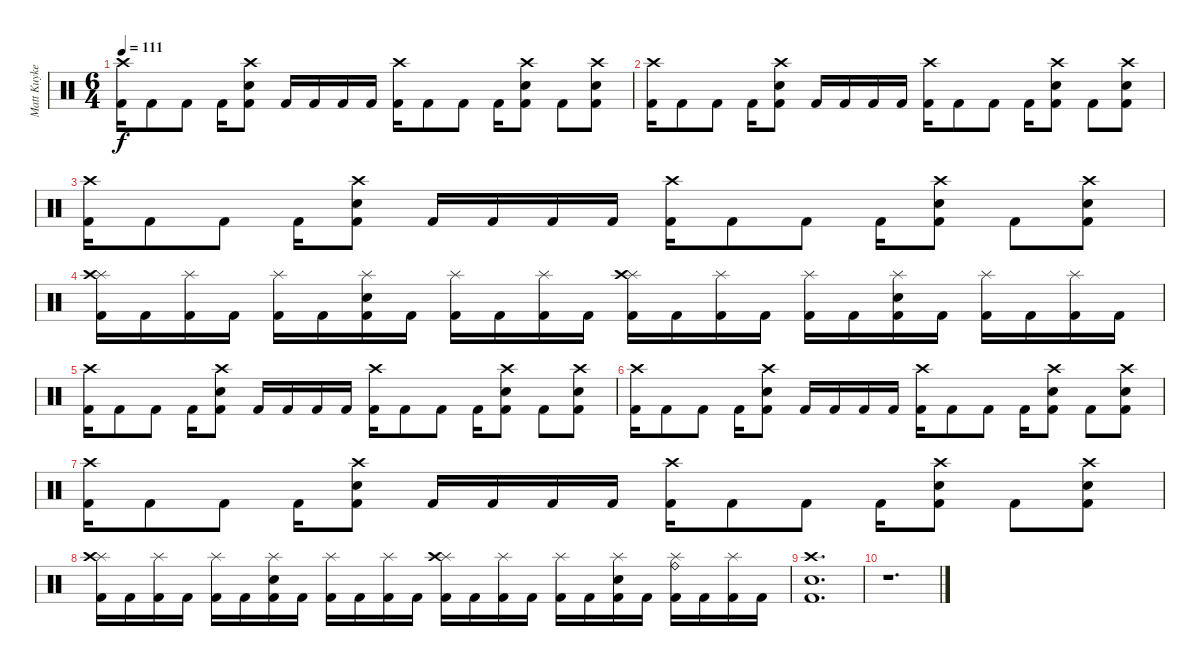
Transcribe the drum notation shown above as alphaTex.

\track ("Matt Kuykendall (Drums)" "Matt Kuyke") {instrument percussion}
\staff {score}
\articulation defaults
\ts (6 4)
\tempo 111
\clef neutral
\ks c
("Crash high (hit)" "Kick (hit) 2").16{dy f} "Kick (hit) 2".8 "Kick (hit) 2".8 "Kick (hit) 2".16 ("Crash high (hit)" "Snare (hit) 2" "Kick (hit) 2").8 "Kick (hit) 2".16 "Kick (hit) 2".16 "Kick (hit) 2".16 "Kick (hit) 2".16 ("Crash high (hit)" "Kick (hit) 2").16 "Kick (hit) 2".8 "Kick (hit) 2".8 "Kick (hit) 2".16 ("Crash high (hit)" "Snare (hit) 2" "Kick (hit) 2").8 "Kick (hit) 2".8 ("Crash high (hit)" "Snare (hit) 2" "Kick (hit) 2").8 |
("Crash high (hit)" "Kick (hit) 2").16 "Kick (hit) 2".8 "Kick (hit) 2".8 "Kick (hit) 2".16 ("Crash high (hit)" "Snare (hit) 2" "Kick (hit) 2").8 "Kick (hit) 2".16 "Kick (hit) 2".16 "Kick (hit) 2".16 "Kick (hit) 2".16 ("Crash high (hit)" "Kick (hit) 2").16 "Kick (hit) 2".8 "Kick (hit) 2".8 "Kick (hit) 2".16 ("Crash high (hit)" "Snare (hit) 2" "Kick (hit) 2").8 "Kick (hit) 2".8 ("Crash high (hit)" "Snare (hit) 2" "Kick (hit) 2").8 |
("Crash high (hit)" "Kick (hit) 2").16 "Kick (hit) 2".8 "Kick (hit) 2".8 "Kick (hit) 2".16 ("Crash high (hit)" "Snare (hit) 2" "Kick (hit) 2").8 "Kick (hit) 2".16 "Kick (hit) 2".16 "Kick (hit) 2".16 "Kick (hit) 2".16 ("Crash high (hit)" "Kick (hit) 2").16 "Kick (hit) 2".8 "Kick (hit) 2".8 "Kick (hit) 2".16 ("Crash high (hit)" "Snare (hit) 2" "Kick (hit) 2").8 "Kick (hit) 2".8 ("Crash high (hit)" "Snare (hit) 2" "Kick (hit) 2").8 |
("Splash (hit)" "Crash high (hit)" "Kick (hit) 2").16 "Kick (hit) 2".16 ("Splash (hit)" "Kick (hit) 2").16 "Kick (hit) 2".16 ("Splash (hit)" "Kick (hit) 2").16 "Kick (hit) 2".16 ("Splash (hit)" "Snare (hit) 2" "Kick (hit) 2").16 "Kick (hit) 2".16 ("Splash (hit)" "Kick (hit) 2").16 "Kick (hit) 2".16 ("Splash (hit)" "Kick (hit) 2").16 "Kick (hit) 2".16 ("Splash (hit)" "Crash high (hit)" "Kick (hit) 2").16 "Kick (hit) 2".16 ("Splash (hit)" "Kick (hit) 2").16 "Kick (hit) 2".16 ("Splash (hit)" "Kick (hit) 2").16 "Kick (hit) 2".16 ("Splash (hit)" "Snare (hit) 2" "Kick (hit) 2").16 "Kick (hit) 2".16 ("Splash (hit)" "Kick (hit) 2").16 "Kick (hit) 2".16 ("Splash (hit)" "Kick (hit) 2").16 "Kick (hit) 2".16 |
("Crash high (hit)" "Kick (hit) 2").16 "Kick (hit) 2".8 "Kick (hit) 2".8 "Kick (hit) 2".16 ("Crash high (hit)" "Snare (hit) 2" "Kick (hit) 2").8 "Kick (hit) 2".16 "Kick (hit) 2".16 "Kick (hit) 2".16 "Kick (hit) 2".16 ("Crash high (hit)" "Kick (hit) 2").16 "Kick (hit) 2".8 "Kick (hit) 2".8 "Kick (hit) 2".16 ("Crash high (hit)" "Snare (hit) 2" "Kick (hit) 2").8 "Kick (hit) 2".8 ("Crash high (hit)" "Snare (hit) 2" "Kick (hit) 2").8 |
("Crash high (hit)" "Kick (hit) 2").16 "Kick (hit) 2".8 "Kick (hit) 2".8 "Kick (hit) 2".16 ("Crash high (hit)" "Snare (hit) 2" "Kick (hit) 2").8 "Kick (hit) 2".16 "Kick (hit) 2".16 "Kick (hit) 2".16 "Kick (hit) 2".16 ("Crash high (hit)" "Kick (hit) 2").16 "Kick (hit) 2".8 "Kick (hit) 2".8 "Kick (hit) 2".16 ("Crash high (hit)" "Snare (hit) 2" "Kick (hit) 2").8 "Kick (hit) 2".8 ("Crash high (hit)" "Snare (hit) 2" "Kick (hit) 2").8 |
("Crash high (hit)" "Kick (hit) 2").16 "Kick (hit) 2".8 "Kick (hit) 2".8 "Kick (hit) 2".16 ("Crash high (hit)" "Snare (hit) 2" "Kick (hit) 2").8 "Kick (hit) 2".16 "Kick (hit) 2".16 "Kick (hit) 2".16 "Kick (hit) 2".16 ("Crash high (hit)" "Kick (hit) 2").16 "Kick (hit) 2".8 "Kick (hit) 2".8 "Kick (hit) 2".16 ("Crash high (hit)" "Snare (hit) 2" "Kick (hit) 2").8 "Kick (hit) 2".8 ("Crash high (hit)" "Snare (hit) 2" "Kick (hit) 2").8 |
("Splash (hit)" "Crash high (hit)" "Kick (hit) 2").16 "Kick (hit) 2".16 ("Splash (hit)" "Kick (hit) 2").16 "Kick (hit) 2".16 ("Splash (hit)" "Kick (hit) 2").16 "Kick (hit) 2".16 ("Splash (hit)" "Snare (hit) 2" "Kick (hit) 2").16 "Kick (hit) 2".16 ("Splash (hit)" "Kick (hit) 2").16 "Kick (hit) 2".16 ("Splash (hit)" "Kick (hit) 2").16 "Kick (hit) 2".16 ("Splash (hit)" "Crash high (hit)" "Kick (hit) 2").16 "Kick (hit) 2".16 ("Splash (hit)" "Kick (hit) 2").16 "Kick (hit) 2".16 ("Splash (hit)" "Kick (hit) 2").16 "Kick (hit) 2".16 ("Splash (hit)" "Snare (hit) 2" "Kick (hit) 2").16 "Kick (hit) 2".16 ("Splash (hit)" "Ride (bell)" "Kick (hit) 2").16 "Kick (hit) 2".16 ("Splash (hit)" "Kick (hit) 2").16 "Kick (hit) 2".16 |
("Crash high (hit)" "Snare (hit) 2" "Kick (hit) 2").1{d} |
r.1{d}
